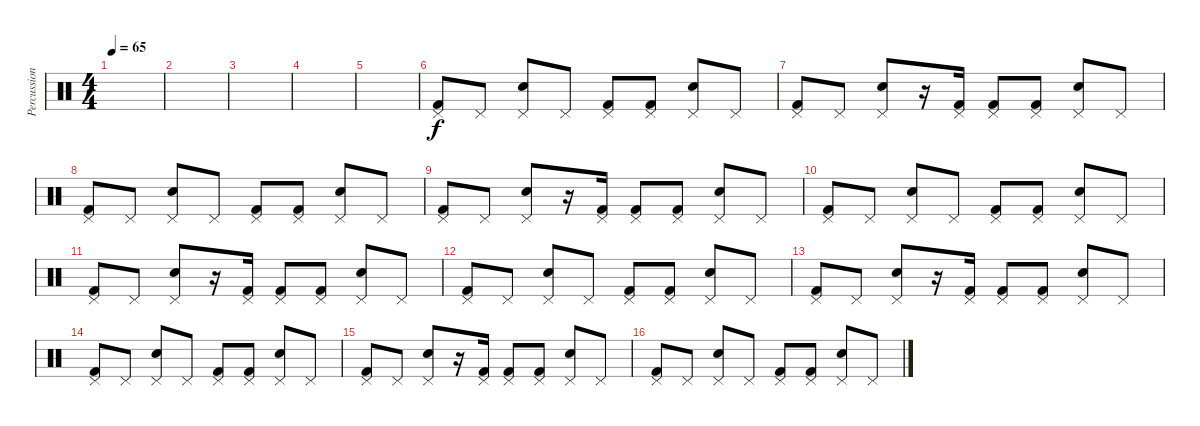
\track ("Percussion" "Percussion") {instrument percussion}
\staff {score}
\articulation defaults
\ts (4 4)
\tempo 65
\clef neutral
\ks c
|
|
|
|
|
("Pedal Hi-Hat (hit)" "Kick (hit) 2").8 "Pedal Hi-Hat (hit)".8 ("Pedal Hi-Hat (hit)" "Snare (hit) 2").8 "Pedal Hi-Hat (hit)".8 ("Pedal Hi-Hat (hit)" "Kick (hit) 2").8 ("Pedal Hi-Hat (hit)" "Kick (hit) 2").8 ("Pedal Hi-Hat (hit)" "Snare (hit) 2").8 "Pedal Hi-Hat (hit)".8 |
("Pedal Hi-Hat (hit)" "Kick (hit) 2").8 "Pedal Hi-Hat (hit)".8 ("Pedal Hi-Hat (hit)" "Snare (hit) 2").8 r.16 ("Pedal Hi-Hat (hit)" "Kick (hit) 2").16 ("Pedal Hi-Hat (hit)" "Kick (hit) 2").8 ("Pedal Hi-Hat (hit)" "Kick (hit) 2").8 ("Pedal Hi-Hat (hit)" "Snare (hit) 2").8 "Pedal Hi-Hat (hit)".8 |
("Pedal Hi-Hat (hit)" "Kick (hit) 2").8 "Pedal Hi-Hat (hit)".8 ("Pedal Hi-Hat (hit)" "Snare (hit) 2").8 "Pedal Hi-Hat (hit)".8 ("Pedal Hi-Hat (hit)" "Kick (hit) 2").8 ("Pedal Hi-Hat (hit)" "Kick (hit) 2").8 ("Pedal Hi-Hat (hit)" "Snare (hit) 2").8 "Pedal Hi-Hat (hit)".8 |
("Pedal Hi-Hat (hit)" "Kick (hit) 2").8 "Pedal Hi-Hat (hit)".8 ("Pedal Hi-Hat (hit)" "Snare (hit) 2").8 r.16 ("Pedal Hi-Hat (hit)" "Kick (hit) 2").16 ("Pedal Hi-Hat (hit)" "Kick (hit) 2").8 ("Pedal Hi-Hat (hit)" "Kick (hit) 2").8 ("Pedal Hi-Hat (hit)" "Snare (hit) 2").8 "Pedal Hi-Hat (hit)".8 |
("Pedal Hi-Hat (hit)" "Kick (hit) 2").8 "Pedal Hi-Hat (hit)".8 ("Pedal Hi-Hat (hit)" "Snare (hit) 2").8 "Pedal Hi-Hat (hit)".8 ("Pedal Hi-Hat (hit)" "Kick (hit) 2").8 ("Pedal Hi-Hat (hit)" "Kick (hit) 2").8 ("Pedal Hi-Hat (hit)" "Snare (hit) 2").8 "Pedal Hi-Hat (hit)".8 |
("Pedal Hi-Hat (hit)" "Kick (hit) 2").8 "Pedal Hi-Hat (hit)".8 ("Pedal Hi-Hat (hit)" "Snare (hit) 2").8 r.16 ("Pedal Hi-Hat (hit)" "Kick (hit) 2").16 ("Pedal Hi-Hat (hit)" "Kick (hit) 2").8 ("Pedal Hi-Hat (hit)" "Kick (hit) 2").8 ("Pedal Hi-Hat (hit)" "Snare (hit) 2").8 "Pedal Hi-Hat (hit)".8 |
("Pedal Hi-Hat (hit)" "Kick (hit) 2").8 "Pedal Hi-Hat (hit)".8 ("Pedal Hi-Hat (hit)" "Snare (hit) 2").8 "Pedal Hi-Hat (hit)".8 ("Pedal Hi-Hat (hit)" "Kick (hit) 2").8 ("Pedal Hi-Hat (hit)" "Kick (hit) 2").8 ("Pedal Hi-Hat (hit)" "Snare (hit) 2").8 "Pedal Hi-Hat (hit)".8 |
("Pedal Hi-Hat (hit)" "Kick (hit) 2").8 "Pedal Hi-Hat (hit)".8 ("Pedal Hi-Hat (hit)" "Snare (hit) 2").8 r.16 ("Pedal Hi-Hat (hit)" "Kick (hit) 2").16 ("Pedal Hi-Hat (hit)" "Kick (hit) 2").8 ("Pedal Hi-Hat (hit)" "Kick (hit) 2").8 ("Pedal Hi-Hat (hit)" "Snare (hit) 2").8 "Pedal Hi-Hat (hit)".8 |
("Pedal Hi-Hat (hit)" "Kick (hit) 2").8 "Pedal Hi-Hat (hit)".8 ("Pedal Hi-Hat (hit)" "Snare (hit) 2").8 "Pedal Hi-Hat (hit)".8 ("Pedal Hi-Hat (hit)" "Kick (hit) 2").8 ("Pedal Hi-Hat (hit)" "Kick (hit) 2").8 ("Pedal Hi-Hat (hit)" "Snare (hit) 2").8 "Pedal Hi-Hat (hit)".8 |
("Pedal Hi-Hat (hit)" "Kick (hit) 2").8 "Pedal Hi-Hat (hit)".8 ("Pedal Hi-Hat (hit)" "Snare (hit) 2").8 r.16 ("Pedal Hi-Hat (hit)" "Kick (hit) 2").16 ("Pedal Hi-Hat (hit)" "Kick (hit) 2").8 ("Pedal Hi-Hat (hit)" "Kick (hit) 2").8 ("Pedal Hi-Hat (hit)" "Snare (hit) 2").8 "Pedal Hi-Hat (hit)".8 |
("Pedal Hi-Hat (hit)" "Kick (hit) 2").8 "Pedal Hi-Hat (hit)".8 ("Pedal Hi-Hat (hit)" "Snare (hit) 2").8 "Pedal Hi-Hat (hit)".8 ("Pedal Hi-Hat (hit)" "Kick (hit) 2").8 ("Pedal Hi-Hat (hit)" "Kick (hit) 2").8 ("Pedal Hi-Hat (hit)" "Snare (hit) 2").8 "Pedal Hi-Hat (hit)".8
